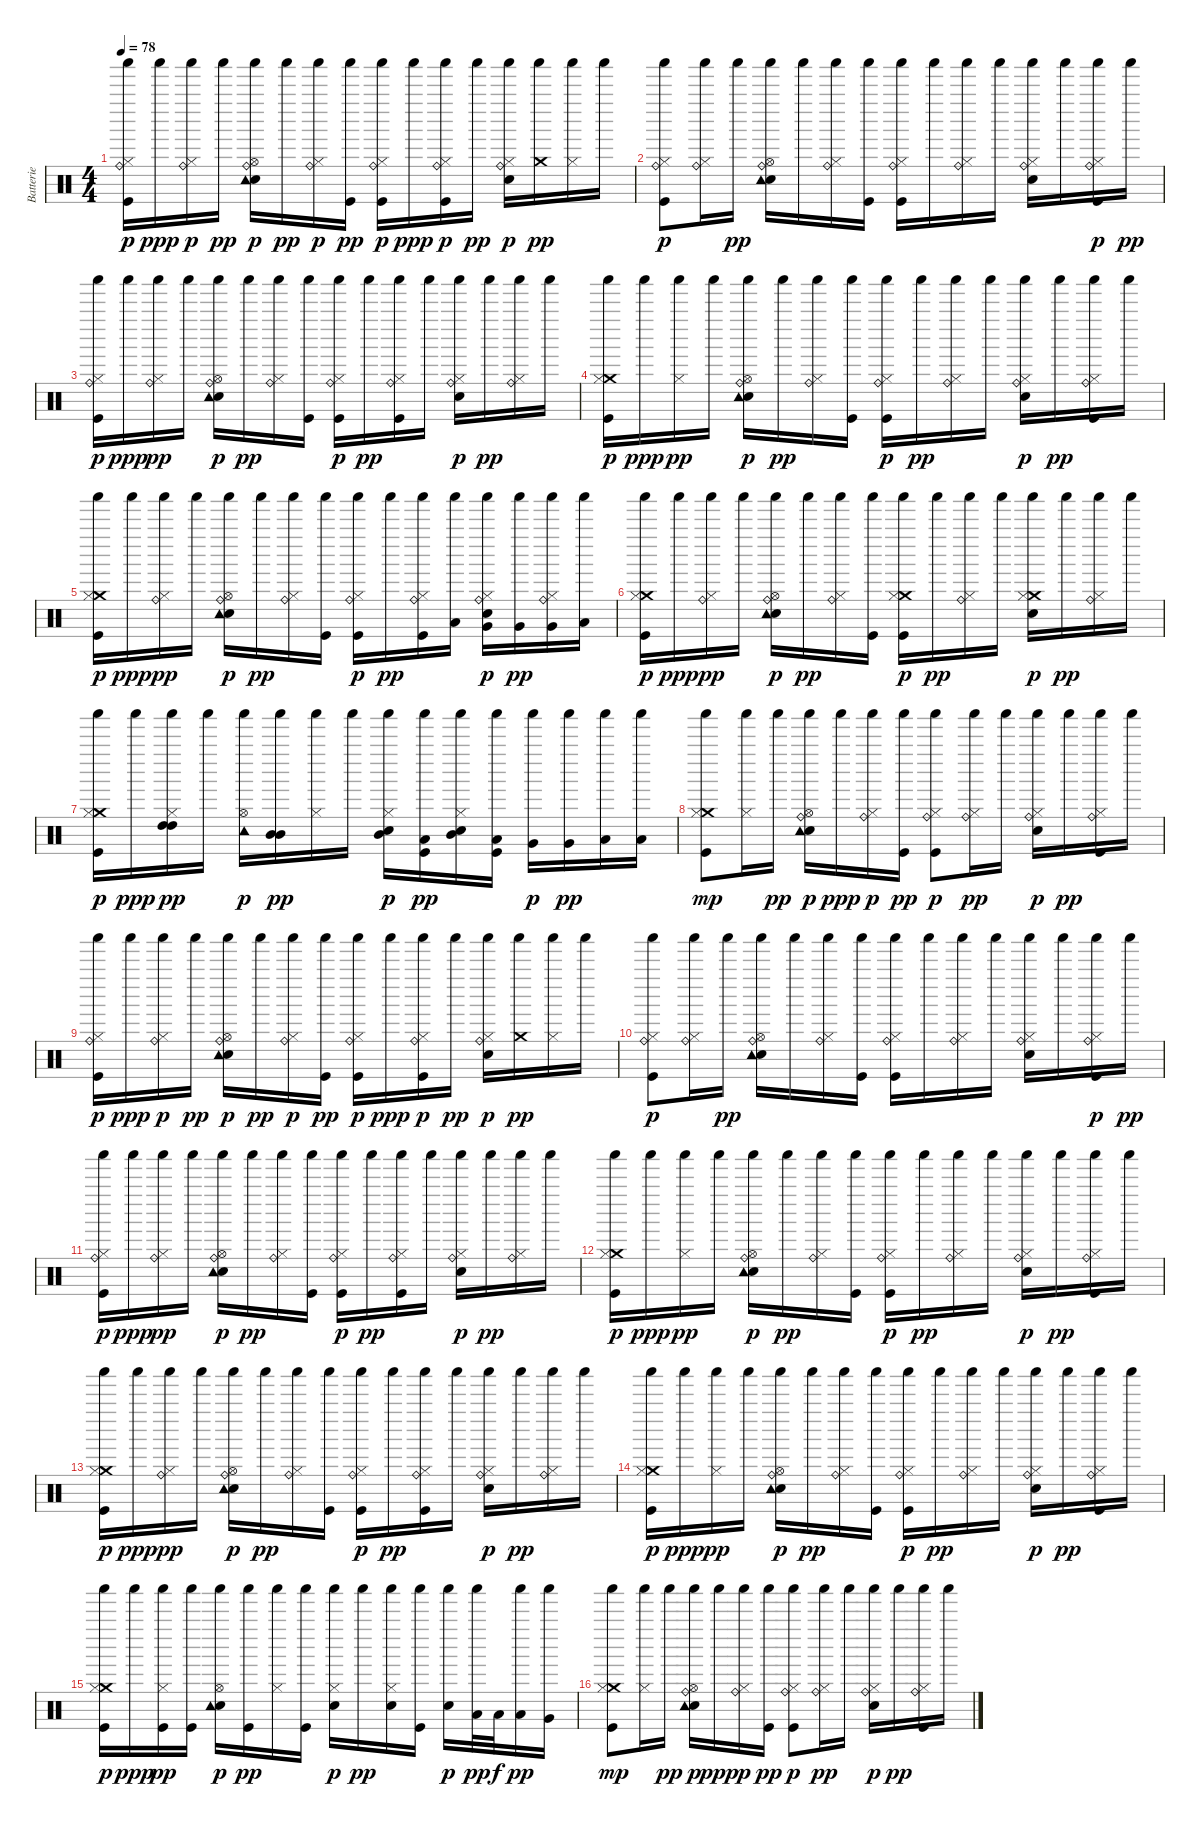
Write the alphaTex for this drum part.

\track ("Batterie" "Batterie") {instrument percussion}
\staff {score}
\articulation defaults
\ts (4 4)
\tempo 78
\clef neutral
\ks c
("Ride (bell)" "Kick (hit)" "Hi-Hat (closed)" "Shaker (hit)").16{dy p} "Shaker (hit)".16{dy ppp} ("Ride (bell)" "Hi-Hat (closed)" "Shaker (hit)").16{dy p} "Shaker (hit)".16{dy pp} ("Hi-Hat (open)" "Electric Snare (hit)" "Ride (bell)" "Shaker (hit)" "Tambourine (hit)").16{dy p} "Shaker (hit)".16{dy pp} ("Ride (bell)" "Hi-Hat (closed)" "Shaker (hit)").16{dy p} ("Kick (hit)" "Shaker (hit)").16{dy pp} ("Ride (bell)" "Kick (hit)" "Hi-Hat (closed)" "Shaker (hit)").16{dy p} "Shaker (hit)".16{dy ppp} ("Ride (bell)" "Kick (hit)" "Hi-Hat (closed)" "Shaker (hit)").16{dy p} "Shaker (hit)".16{dy pp} ("Electric Snare (hit)" "Ride (bell)" "Hi-Hat (closed)" "Shaker (hit)").16{dy p} ("Crash medium (hit)" "Shaker (hit)").16{dy pp} ("Hi-Hat (closed)" "Shaker (hit)").16 "Shaker (hit)".16 |
("Ride (bell)" "Kick (hit)" "Hi-Hat (closed)" "Shaker (hit)").8{dy p} ("Ride (bell)" "Hi-Hat (closed)" "Shaker (hit)").16 "Shaker (hit)".16{dy pp} ("Hi-Hat (open)" "Electric Snare (hit)" "Ride (bell)" "Shaker (hit)" "Tambourine (hit)").16 "Shaker (hit)".16 ("Ride (bell)" "Hi-Hat (closed)" "Shaker (hit)").16 ("Kick (hit)" "Shaker (hit)").16 ("Ride (bell)" "Kick (hit)" "Hi-Hat (closed)" "Shaker (hit)").16 "Shaker (hit)".16 ("Ride (bell)" "Hi-Hat (closed)" "Shaker (hit)").16 "Shaker (hit)".16 ("Electric Snare (hit)" "Ride (bell)" "Hi-Hat (closed)" "Shaker (hit)").16 "Shaker (hit)".16 ("Ride (bell)" "Kick (hit)" "Hi-Hat (closed)" "Shaker (hit)").16{dy p} "Shaker (hit)".16{dy pp} |
("Ride (bell)" "Kick (hit)" "Hi-Hat (closed)" "Shaker (hit)").16{dy p} "Shaker (hit)".16{dy ppp} ("Ride (bell)" "Hi-Hat (closed)" "Shaker (hit)").16{dy pp} "Shaker (hit)".16 ("Hi-Hat (open)" "Electric Snare (hit)" "Ride (bell)" "Shaker (hit)" "Tambourine (hit)").16{dy p} "Shaker (hit)".16{dy pp} ("Ride (bell)" "Hi-Hat (closed)" "Shaker (hit)").16 ("Kick (hit)" "Shaker (hit)").16 ("Ride (bell)" "Kick (hit)" "Hi-Hat (closed)" "Shaker (hit)").16{dy p} "Shaker (hit)".16{dy pp} ("Ride (bell)" "Kick (hit)" "Hi-Hat (closed)" "Shaker (hit)").16 "Shaker (hit)".16 ("Electric Snare (hit)" "Ride (bell)" "Hi-Hat (closed)" "Shaker (hit)").16{dy p} "Shaker (hit)".16{dy pp} ("Ride (bell)" "Hi-Hat (closed)" "Shaker (hit)").16 "Shaker (hit)".16 |
("Crash medium (hit)" "Kick (hit)" "Hi-Hat (closed)" "Shaker (hit)").16{dy p} "Shaker (hit)".16{dy ppp} ("Hi-Hat (closed)" "Shaker (hit)").16{dy pp} "Shaker (hit)".16 ("Hi-Hat (open)" "Electric Snare (hit)" "Ride (bell)" "Shaker (hit)" "Tambourine (hit)").16{dy p} "Shaker (hit)".16{dy pp} ("Ride (bell)" "Hi-Hat (closed)" "Shaker (hit)").16 ("Kick (hit)" "Shaker (hit)").16 ("Ride (bell)" "Kick (hit)" "Hi-Hat (closed)" "Shaker (hit)").16{dy p} "Shaker (hit)".16{dy pp} ("Ride (bell)" "Hi-Hat (closed)" "Shaker (hit)").16 "Shaker (hit)".16 ("Electric Snare (hit)" "Ride (bell)" "Hi-Hat (closed)" "Shaker (hit)").16{dy p} "Shaker (hit)".16{dy pp} ("Ride (bell)" "Kick (hit)" "Hi-Hat (closed)" "Shaker (hit)").16 "Shaker (hit)".16 |
("Crash medium (hit)" "Kick (hit)" "Hi-Hat (closed)" "Shaker (hit)").16{dy p} "Shaker (hit)".16{dy ppp} ("Ride (bell)" "Hi-Hat (closed)" "Shaker (hit)").16{dy pp} "Shaker (hit)".16 ("Hi-Hat (open)" "Electric Snare (hit)" "Ride (bell)" "Shaker (hit)" "Tambourine (hit)").16{dy p} "Shaker (hit)".16{dy pp} ("Ride (bell)" "Hi-Hat (closed)" "Shaker (hit)").16 ("Kick (hit)" "Shaker (hit)").16 ("Ride (bell)" "Kick (hit)" "Hi-Hat (closed)" "Shaker (hit)").16{dy p} "Shaker (hit)".16{dy pp} ("Ride (bell)" "Kick (hit)" "Hi-Hat (closed)" "Shaker (hit)").16 ("Low Tom (hit)" "Shaker (hit)").16 ("Very Low Tom (hit)" "Electric Snare (hit)" "Ride (bell)" "Hi-Hat (closed)" "Shaker (hit)").16{dy p} ("Very Low Tom (hit)" "Shaker (hit)").16{dy pp} ("Very Low Tom (hit)" "Ride (bell)" "Hi-Hat (closed)" "Shaker (hit)").16 ("Low Floor Tom (hit)" "Shaker (hit)").16 |
("Crash medium (hit)" "Kick (hit)" "Hi-Hat (closed)" "Shaker (hit)").16{dy p} "Shaker (hit)".16{dy ppp} ("Ride (bell)" "Hi-Hat (closed)" "Shaker (hit)").16{dy pp} "Shaker (hit)".16 ("Hi-Hat (open)" "Electric Snare (hit)" "Ride (bell)" "Shaker (hit)" "Tambourine (hit)").16{dy p} "Shaker (hit)".16{dy pp} ("Ride (bell)" "Hi-Hat (closed)" "Shaker (hit)").16 ("Kick (hit)" "Shaker (hit)").16 ("Crash medium (hit)" "Kick (hit)" "Hi-Hat (closed)" "Shaker (hit)").16{dy p} "Shaker (hit)".16{dy pp} ("Ride (bell)" "Hi-Hat (closed)" "Shaker (hit)").16 "Shaker (hit)".16 ("Crash medium (hit)" "Electric Snare (hit)" "Hi-Hat (closed)" "Shaker (hit)").16{dy p} "Shaker (hit)".16{dy pp} ("Ride (bell)" "Hi-Hat (closed)" "Shaker (hit)").16 "Shaker (hit)".16 |
("Crash medium (hit)" "Kick (hit)" "Hi-Hat (closed)" "Shaker (hit)").16{dy p} "Shaker (hit)".16{dy ppp} ("High Tom (hit)" "High Tom (hit)" "Hi-Hat (closed)" "Shaker (hit)").16{dy pp} "Shaker (hit)".16 ("Hi-Hat (open)" "Shaker (hit)" "Tambourine (hit)").16{dy p} ("Mid Tom (hit)" "Mid Tom (hit)" "Shaker (hit)").16{dy pp} ("Hi-Hat (closed)" "Shaker (hit)").16 "Shaker (hit)".16 ("Mid Tom (hit)" "Electric Snare (hit)" "Hi-Hat (closed)" "Shaker (hit)").16{dy p} ("Low Tom (hit)" "Kick (hit)" "Shaker (hit)").16{dy pp} ("Mid Tom (hit)" "Electric Snare (hit)" "Hi-Hat (closed)" "Shaker (hit)").16 ("Low Tom (hit)" "Kick (hit)" "Shaker (hit)").16 ("Very Low Tom (hit)" "Shaker (hit)").16{dy p} ("Very Low Tom (hit)" "Shaker (hit)").16{dy pp} ("Low Floor Tom (hit)" "Shaker (hit)").16 ("Low Floor Tom (hit)" "Shaker (hit)").16 |
("Crash medium (hit)" "Kick (hit)" "Hi-Hat (closed)" "Shaker (hit)").8{dy mp} ("Hi-Hat (closed)" "Shaker (hit)").16 "Shaker (hit)".16{dy pp} ("Hi-Hat (open)" "Electric Snare (hit)" "Ride (bell)" "Shaker (hit)" "Tambourine (hit)").16{dy p} "Shaker (hit)".16{dy ppp} ("Ride (bell)" "Hi-Hat (closed)" "Shaker (hit)").16{dy p} ("Kick (hit)" "Shaker (hit)").16{dy pp} ("Ride (bell)" "Kick (hit)" "Hi-Hat (closed)" "Shaker (hit)").8{dy p} ("Ride (bell)" "Hi-Hat (closed)" "Shaker (hit)").16{dy pp} "Shaker (hit)".16 ("Electric Snare (hit)" "Ride (bell)" "Hi-Hat (closed)" "Shaker (hit)").16{dy p} "Shaker (hit)".16{dy pp} ("Ride (bell)" "Kick (hit)" "Hi-Hat (closed)" "Shaker (hit)").16 "Shaker (hit)".16 |
("Ride (bell)" "Kick (hit)" "Hi-Hat (closed)" "Shaker (hit)").16{dy p} "Shaker (hit)".16{dy ppp} ("Ride (bell)" "Hi-Hat (closed)" "Shaker (hit)").16{dy p} "Shaker (hit)".16{dy pp} ("Hi-Hat (open)" "Electric Snare (hit)" "Ride (bell)" "Shaker (hit)" "Tambourine (hit)").16{dy p} "Shaker (hit)".16{dy pp} ("Ride (bell)" "Hi-Hat (closed)" "Shaker (hit)").16{dy p} ("Kick (hit)" "Shaker (hit)").16{dy pp} ("Ride (bell)" "Kick (hit)" "Hi-Hat (closed)" "Shaker (hit)").16{dy p} "Shaker (hit)".16{dy ppp} ("Ride (bell)" "Kick (hit)" "Hi-Hat (closed)" "Shaker (hit)").16{dy p} "Shaker (hit)".16{dy pp} ("Electric Snare (hit)" "Ride (bell)" "Hi-Hat (closed)" "Shaker (hit)").16{dy p} ("Crash medium (hit)" "Shaker (hit)").16{dy pp} ("Hi-Hat (closed)" "Shaker (hit)").16 "Shaker (hit)".16 |
("Ride (bell)" "Kick (hit)" "Hi-Hat (closed)" "Shaker (hit)").8{dy p} ("Ride (bell)" "Hi-Hat (closed)" "Shaker (hit)").16 "Shaker (hit)".16{dy pp} ("Hi-Hat (open)" "Electric Snare (hit)" "Ride (bell)" "Shaker (hit)" "Tambourine (hit)").16 "Shaker (hit)".16 ("Ride (bell)" "Hi-Hat (closed)" "Shaker (hit)").16 ("Kick (hit)" "Shaker (hit)").16 ("Ride (bell)" "Kick (hit)" "Hi-Hat (closed)" "Shaker (hit)").16 "Shaker (hit)".16 ("Ride (bell)" "Hi-Hat (closed)" "Shaker (hit)").16 "Shaker (hit)".16 ("Electric Snare (hit)" "Ride (bell)" "Hi-Hat (closed)" "Shaker (hit)").16 "Shaker (hit)".16 ("Ride (bell)" "Kick (hit)" "Hi-Hat (closed)" "Shaker (hit)").16{dy p} "Shaker (hit)".16{dy pp} |
("Ride (bell)" "Kick (hit)" "Hi-Hat (closed)" "Shaker (hit)").16{dy p} "Shaker (hit)".16{dy ppp} ("Ride (bell)" "Hi-Hat (closed)" "Shaker (hit)").16{dy pp} "Shaker (hit)".16 ("Hi-Hat (open)" "Electric Snare (hit)" "Ride (bell)" "Shaker (hit)" "Tambourine (hit)").16{dy p} "Shaker (hit)".16{dy pp} ("Ride (bell)" "Hi-Hat (closed)" "Shaker (hit)").16 ("Kick (hit)" "Shaker (hit)").16 ("Ride (bell)" "Kick (hit)" "Hi-Hat (closed)" "Shaker (hit)").16{dy p} "Shaker (hit)".16{dy pp} ("Ride (bell)" "Kick (hit)" "Hi-Hat (closed)" "Shaker (hit)").16 "Shaker (hit)".16 ("Electric Snare (hit)" "Ride (bell)" "Hi-Hat (closed)" "Shaker (hit)").16{dy p} "Shaker (hit)".16{dy pp} ("Ride (bell)" "Hi-Hat (closed)" "Shaker (hit)").16 "Shaker (hit)".16 |
("Crash medium (hit)" "Kick (hit)" "Hi-Hat (closed)" "Shaker (hit)").16{dy p} "Shaker (hit)".16{dy ppp} ("Hi-Hat (closed)" "Shaker (hit)").16{dy pp} "Shaker (hit)".16 ("Hi-Hat (open)" "Electric Snare (hit)" "Ride (bell)" "Shaker (hit)" "Tambourine (hit)").16{dy p} "Shaker (hit)".16{dy pp} ("Ride (bell)" "Hi-Hat (closed)" "Shaker (hit)").16 ("Kick (hit)" "Shaker (hit)").16 ("Ride (bell)" "Kick (hit)" "Hi-Hat (closed)" "Shaker (hit)").16{dy p} "Shaker (hit)".16{dy pp} ("Ride (bell)" "Hi-Hat (closed)" "Shaker (hit)").16 "Shaker (hit)".16 ("Electric Snare (hit)" "Ride (bell)" "Hi-Hat (closed)" "Shaker (hit)").16{dy p} "Shaker (hit)".16{dy pp} ("Ride (bell)" "Kick (hit)" "Hi-Hat (closed)" "Shaker (hit)").16 "Shaker (hit)".16 |
("Crash medium (hit)" "Kick (hit)" "Hi-Hat (closed)" "Shaker (hit)").16{dy p} "Shaker (hit)".16{dy ppp} ("Ride (bell)" "Hi-Hat (closed)" "Shaker (hit)").16{dy pp} "Shaker (hit)".16 ("Hi-Hat (open)" "Electric Snare (hit)" "Ride (bell)" "Shaker (hit)" "Tambourine (hit)").16{dy p} "Shaker (hit)".16{dy pp} ("Ride (bell)" "Hi-Hat (closed)" "Shaker (hit)").16 ("Kick (hit)" "Shaker (hit)").16 ("Ride (bell)" "Kick (hit)" "Hi-Hat (closed)" "Shaker (hit)").16{dy p} "Shaker (hit)".16{dy pp} ("Ride (bell)" "Kick (hit)" "Hi-Hat (closed)" "Shaker (hit)").16 "Shaker (hit)".16 ("Electric Snare (hit)" "Ride (bell)" "Hi-Hat (closed)" "Shaker (hit)").16{dy p} "Shaker (hit)".16{dy pp} ("Ride (bell)" "Hi-Hat (closed)" "Shaker (hit)").16 "Shaker (hit)".16 |
("Crash medium (hit)" "Kick (hit)" "Hi-Hat (closed)" "Shaker (hit)").16{dy p} "Shaker (hit)".16{dy ppp} ("Hi-Hat (closed)" "Shaker (hit)").16{dy pp} "Shaker (hit)".16 ("Hi-Hat (open)" "Electric Snare (hit)" "Ride (bell)" "Shaker (hit)" "Tambourine (hit)").16{dy p} "Shaker (hit)".16{dy pp} ("Ride (bell)" "Hi-Hat (closed)" "Shaker (hit)").16 ("Kick (hit)" "Shaker (hit)").16 ("Ride (bell)" "Kick (hit)" "Hi-Hat (closed)" "Shaker (hit)").16{dy p} "Shaker (hit)".16{dy pp} ("Ride (bell)" "Hi-Hat (closed)" "Shaker (hit)").16 "Shaker (hit)".16 ("Electric Snare (hit)" "Ride (bell)" "Hi-Hat (closed)" "Shaker (hit)").16{dy p} "Shaker (hit)".16{dy pp} ("Ride (bell)" "Kick (hit)" "Hi-Hat (closed)" "Shaker (hit)").16 "Shaker (hit)".16 |
("Crash medium (hit)" "Kick (hit)" "Hi-Hat (closed)" "Shaker (hit)").16{dy p} "Shaker (hit)".16{dy ppp} ("Kick (hit)" "Hi-Hat (closed)" "Shaker (hit)").16{dy pp} ("Kick (hit)" "Shaker (hit)").16 ("Hi-Hat (open)" "Electric Snare (hit)" "Shaker (hit)" "Tambourine (hit)").16{dy p} ("Kick (hit)" "Shaker (hit)").16{dy pp} ("Hi-Hat (closed)" "Shaker (hit)").16 ("Kick (hit)" "Shaker (hit)").16 ("Electric Snare (hit)" "Hi-Hat (closed)" "Shaker (hit)").16{dy p} "Shaker (hit)".16{dy pp} ("Electric Snare (hit)" "Hi-Hat (closed)" "Shaker (hit)").16 ("Kick (hit)" "Shaker (hit)").16 ("Electric Snare (hit)" "Shaker (hit)").16{dy p} ("Low Tom (hit)" "Shaker (hit)").32{dy pp} "Low Tom (hit)".32{dy f} ("Low Tom (hit)" "Shaker (hit)").16{dy pp} ("Very Low Tom (hit)" "Shaker (hit)").16 |
("Crash medium (hit)" "Kick (hit)" "Hi-Hat (closed)" "Shaker (hit)").8{dy mp} ("Hi-Hat (closed)" "Shaker (hit)").16 "Shaker (hit)".16{dy pp} ("Hi-Hat (open)" "Electric Snare (hit)" "Ride (bell)" "Shaker (hit)" "Tambourine (hit)").16{dy p} "Shaker (hit)".16{dy ppp} ("Ride (bell)" "Hi-Hat (closed)" "Shaker (hit)").16{dy p} ("Kick (hit)" "Shaker (hit)").16{dy pp} ("Ride (bell)" "Kick (hit)" "Hi-Hat (closed)" "Shaker (hit)").8{dy p} ("Ride (bell)" "Hi-Hat (closed)" "Shaker (hit)").16{dy pp} "Shaker (hit)".16 ("Electric Snare (hit)" "Ride (bell)" "Hi-Hat (closed)" "Shaker (hit)").16{dy p} "Shaker (hit)".16{dy pp} ("Ride (bell)" "Kick (hit)" "Hi-Hat (closed)" "Shaker (hit)").16 "Shaker (hit)".16
